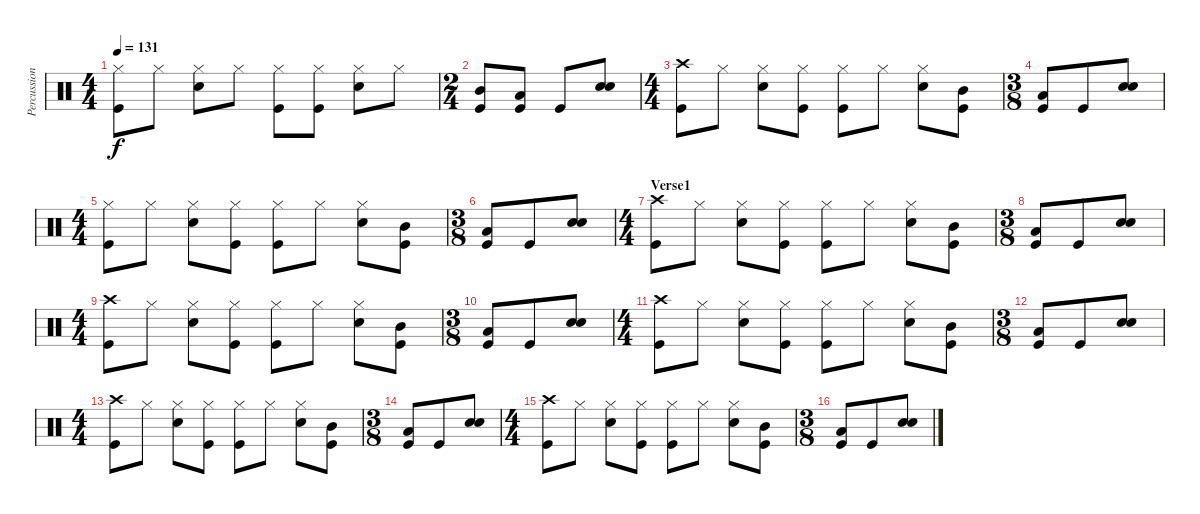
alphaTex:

\track ("Percussions" "Percussion") {instrument percussion}
\staff {score}
\articulation defaults
\ts (4 4)
\tempo 131
\clef neutral
\ks c
("Hi-Hat (closed)" "Kick (hit)").8{dy f} "Hi-Hat (closed)".8 ("Hi-Hat (closed)" "Electric Snare (hit)").8 "Hi-Hat (closed)".8 ("Hi-Hat (closed)" "Kick (hit)").8 ("Hi-Hat (closed)" "Kick (hit)").8 ("Hi-Hat (closed)" "Electric Snare (hit)").8 "Hi-Hat (closed)".8 |
\ts (2 4)
("Mid Tom (hit)" "Kick (hit)").8 ("Low Tom (hit)" "Kick (hit)").8 "Kick (hit)".8 ("Electric Snare (hit)" "Electric Snare (hit)").8{bd 120} |
\ts (4 4)
("Crash high (hit)" "Kick (hit)").8 "Hi-Hat (closed)".8 ("Hi-Hat (closed)" "Electric Snare (hit)").8 ("Hi-Hat (closed)" "Kick (hit)").8 ("Hi-Hat (closed)" "Kick (hit)").8 "Hi-Hat (closed)".8 ("Hi-Hat (closed)" "Electric Snare (hit)").8 ("Mid Tom (hit)" "Kick (hit)").8 |
\ts (3 8)
("Low Tom (hit)" "Kick (hit)").8 "Kick (hit)".8 ("Electric Snare (hit)" "Electric Snare (hit)").8{bd 120} |
\ts (4 4)
("Hi-Hat (closed)" "Kick (hit)").8 "Hi-Hat (closed)".8 ("Hi-Hat (closed)" "Electric Snare (hit)").8 ("Hi-Hat (closed)" "Kick (hit)").8 ("Hi-Hat (closed)" "Kick (hit)").8 "Hi-Hat (closed)".8 ("Hi-Hat (closed)" "Electric Snare (hit)").8 ("Mid Tom (hit)" "Kick (hit)").8 |
\ts (3 8)
("Low Tom (hit)" "Kick (hit)").8 "Kick (hit)".8 ("Electric Snare (hit)" "Electric Snare (hit)").8{bd 120} |
\ts (4 4)
\section ("" "Verse1")
("Crash high (hit)" "Kick (hit)").8 "Hi-Hat (closed)".8 ("Hi-Hat (closed)" "Electric Snare (hit)").8 ("Hi-Hat (closed)" "Kick (hit)").8 ("Hi-Hat (closed)" "Kick (hit)").8 "Hi-Hat (closed)".8 ("Hi-Hat (closed)" "Electric Snare (hit)").8 ("Mid Tom (hit)" "Kick (hit)").8 |
\ts (3 8)
("Low Tom (hit)" "Kick (hit)").8 "Kick (hit)".8 ("Electric Snare (hit)" "Electric Snare (hit)").8{bd 120} |
\ts (4 4)
("Crash high (hit)" "Kick (hit)").8 "Hi-Hat (closed)".8 ("Hi-Hat (closed)" "Electric Snare (hit)").8 ("Hi-Hat (closed)" "Kick (hit)").8 ("Hi-Hat (closed)" "Kick (hit)").8 "Hi-Hat (closed)".8 ("Hi-Hat (closed)" "Electric Snare (hit)").8 ("Mid Tom (hit)" "Kick (hit)").8 |
\ts (3 8)
("Low Tom (hit)" "Kick (hit)").8 "Kick (hit)".8 ("Electric Snare (hit)" "Electric Snare (hit)").8{bd 120} |
\ts (4 4)
("Crash high (hit)" "Kick (hit)").8 "Hi-Hat (closed)".8 ("Hi-Hat (closed)" "Electric Snare (hit)").8 ("Hi-Hat (closed)" "Kick (hit)").8 ("Hi-Hat (closed)" "Kick (hit)").8 "Hi-Hat (closed)".8 ("Hi-Hat (closed)" "Electric Snare (hit)").8 ("Mid Tom (hit)" "Kick (hit)").8 |
\ts (3 8)
("Low Tom (hit)" "Kick (hit)").8 "Kick (hit)".8 ("Electric Snare (hit)" "Electric Snare (hit)").8{bd 120} |
\ts (4 4)
("Crash high (hit)" "Kick (hit)").8 "Hi-Hat (closed)".8 ("Hi-Hat (closed)" "Electric Snare (hit)").8 ("Hi-Hat (closed)" "Kick (hit)").8 ("Hi-Hat (closed)" "Kick (hit)").8 "Hi-Hat (closed)".8 ("Hi-Hat (closed)" "Electric Snare (hit)").8 ("Mid Tom (hit)" "Kick (hit)").8 |
\ts (3 8)
("Low Tom (hit)" "Kick (hit)").8 "Kick (hit)".8 ("Electric Snare (hit)" "Electric Snare (hit)").8{bd 120} |
\ts (4 4)
("Crash high (hit)" "Kick (hit)").8 "Hi-Hat (closed)".8 ("Hi-Hat (closed)" "Electric Snare (hit)").8 ("Hi-Hat (closed)" "Kick (hit)").8 ("Hi-Hat (closed)" "Kick (hit)").8 "Hi-Hat (closed)".8 ("Hi-Hat (closed)" "Electric Snare (hit)").8 ("Mid Tom (hit)" "Kick (hit)").8 |
\ts (3 8)
("Low Tom (hit)" "Kick (hit)").8 "Kick (hit)".8 ("Electric Snare (hit)" "Electric Snare (hit)").8{bd 120}
